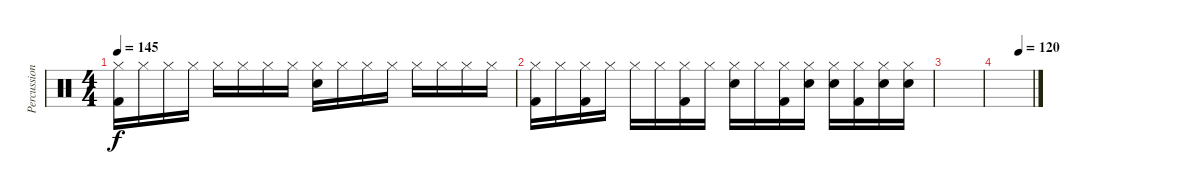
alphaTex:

\track ("Percussions" "Percussion") {instrument percussion}
\staff {score}
\articulation defaults
\ts (4 4)
\tempo 145
\clef neutral
\ks c
("Hi-Hat (closed)" "Kick (hit) 2").16{dy f} "Hi-Hat (closed)".16 "Hi-Hat (closed)".16 "Hi-Hat (closed)".16 "Hi-Hat (closed)".16 "Hi-Hat (closed)".16 "Hi-Hat (closed)".16 "Hi-Hat (closed)".16 ("Hi-Hat (closed)" "Snare (hit) 2").16 "Hi-Hat (closed)".16 "Hi-Hat (closed)".16 "Hi-Hat (closed)".16 "Hi-Hat (closed)".16 "Hi-Hat (closed)".16 "Hi-Hat (closed)".16 "Hi-Hat (closed)".16 |
("Hi-Hat (closed)" "Kick (hit) 2").16 "Hi-Hat (closed)".16 ("Hi-Hat (closed)" "Kick (hit) 2").16 "Hi-Hat (closed)".16 "Hi-Hat (closed)".16 "Hi-Hat (closed)".16 ("Hi-Hat (closed)" "Kick (hit) 2").16 "Hi-Hat (closed)".16 ("Hi-Hat (closed)" "Snare (hit) 2").16 "Hi-Hat (closed)".16 ("Hi-Hat (closed)" "Kick (hit) 2").16 ("Hi-Hat (closed)" "Snare (hit) 2").16 ("Hi-Hat (closed)" "Snare (hit) 2").16 ("Hi-Hat (closed)" "Kick (hit) 2").16 ("Hi-Hat (closed)" "Snare (hit) 2").16 ("Hi-Hat (closed)" "Snare (hit) 2").16 |
|
\tempo (120 0.625)
